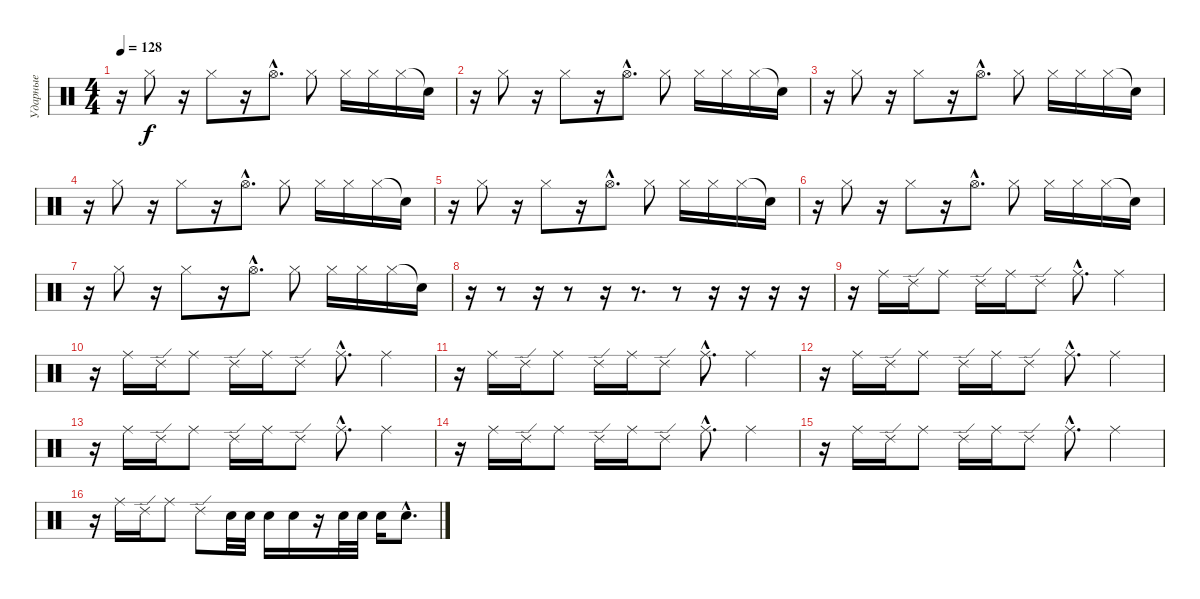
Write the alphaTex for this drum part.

\track ("Ударные" "Ударные") {instrument percussion}
\staff {score}
\articulation defaults
\ts (4 4)
\tempo 128
\clef neutral
\ks c
r.16{dy f} "Hi-Hat (closed)".8 r.16 "Hi-Hat (closed)".8 r.16 "Hi-Hat (open)"{hac}.8{d} "Hi-Hat (closed)".8 "Hi-Hat (closed)".16 "Hi-Hat (closed)".16 "Hi-Hat (closed)".16 "Snare (hit)"{t}.16 |
r.16 "Hi-Hat (closed)".8 r.16 "Hi-Hat (closed)".8 r.16 "Hi-Hat (open)"{hac}.8{d} "Hi-Hat (closed)".8 "Hi-Hat (closed)".16 "Hi-Hat (closed)".16 "Hi-Hat (closed)".16 "Snare (hit)"{t}.16 |
r.16 "Hi-Hat (closed)".8 r.16 "Hi-Hat (closed)".8 r.16 "Hi-Hat (open)"{hac}.8{d} "Hi-Hat (closed)".8 "Hi-Hat (closed)".16 "Hi-Hat (closed)".16 "Hi-Hat (closed)".16 "Snare (hit)"{t}.16 |
r.16 "Hi-Hat (closed)".8 r.16 "Hi-Hat (closed)".8 r.16 "Hi-Hat (open)"{hac}.8{d} "Hi-Hat (closed)".8 "Hi-Hat (closed)".16 "Hi-Hat (closed)".16 "Hi-Hat (closed)".16 "Snare (hit)"{t}.16 |
r.16 "Hi-Hat (closed)".8 r.16 "Hi-Hat (closed)".8 r.16 "Hi-Hat (open)"{hac}.8{d} "Hi-Hat (closed)".8 "Hi-Hat (closed)".16 "Hi-Hat (closed)".16 "Hi-Hat (closed)".16 "Snare (hit)"{t}.16 |
r.16 "Hi-Hat (closed)".8 r.16 "Hi-Hat (closed)".8 r.16 "Hi-Hat (open)"{hac}.8{d} "Hi-Hat (closed)".8 "Hi-Hat (closed)".16 "Hi-Hat (closed)".16 "Hi-Hat (closed)".16 "Snare (hit)"{t}.16 |
r.16 "Hi-Hat (closed)".8 r.16 "Hi-Hat (closed)".8 r.16 "Hi-Hat (open)"{hac}.8{d} "Hi-Hat (closed)".8 "Hi-Hat (closed)".16 "Hi-Hat (closed)".16 "Hi-Hat (closed)".16 "Snare (hit)"{t}.16 |
r.16 r.8 r.16 r.8 r.16 r.8{d} r.8 r.16 r.16 r.16 r.16 |
r.16 "Ride (middle)".16 "Ride (edge) 2".16 "Ride (middle)".8 "Ride (edge) 2".16 "Ride (middle)".16 "Ride (edge) 2".8 "Ride (middle)"{hac}.8{d} "Ride (middle)".4 |
r.16 "Ride (middle)".16 "Ride (edge) 2".16 "Ride (middle)".8 "Ride (edge) 2".16 "Ride (middle)".16 "Ride (edge) 2".8 "Ride (middle)"{hac}.8{d} "Ride (middle)".4 |
r.16 "Ride (middle)".16 "Ride (edge) 2".16 "Ride (middle)".8 "Ride (edge) 2".16 "Ride (middle)".16 "Ride (edge) 2".8 "Ride (middle)"{hac}.8{d} "Ride (middle)".4 |
r.16 "Ride (middle)".16 "Ride (edge) 2".16 "Ride (middle)".8 "Ride (edge) 2".16 "Ride (middle)".16 "Ride (edge) 2".8 "Ride (middle)"{hac}.8{d} "Ride (middle)".4 |
r.16 "Ride (middle)".16 "Ride (edge) 2".16 "Ride (middle)".8 "Ride (edge) 2".16 "Ride (middle)".16 "Ride (edge) 2".8 "Ride (middle)"{hac}.8{d} "Ride (middle)".4 |
r.16 "Ride (middle)".16 "Ride (edge) 2".16 "Ride (middle)".8 "Ride (edge) 2".16 "Ride (middle)".16 "Ride (edge) 2".8 "Ride (middle)"{hac}.8{d} "Ride (middle)".4 |
r.16 "Ride (middle)".16 "Ride (edge) 2".16 "Ride (middle)".8 "Ride (edge) 2".16 "Ride (middle)".16 "Ride (edge) 2".8 "Ride (middle)"{hac}.8{d} "Ride (middle)".4 |
r.16 "Ride (middle)".16 "Ride (edge) 2".16 "Ride (middle)".8 "Ride (edge) 2".8 "Snare (hit) 2".32 "Snare (hit) 2".32 "Snare (hit) 2".16 "Snare (hit) 2".16 r.16 "Snare (hit) 2".32 "Snare (hit) 2".32 "Snare (hit) 2".16 "Snare (hit) 2"{hac}.8{d}
